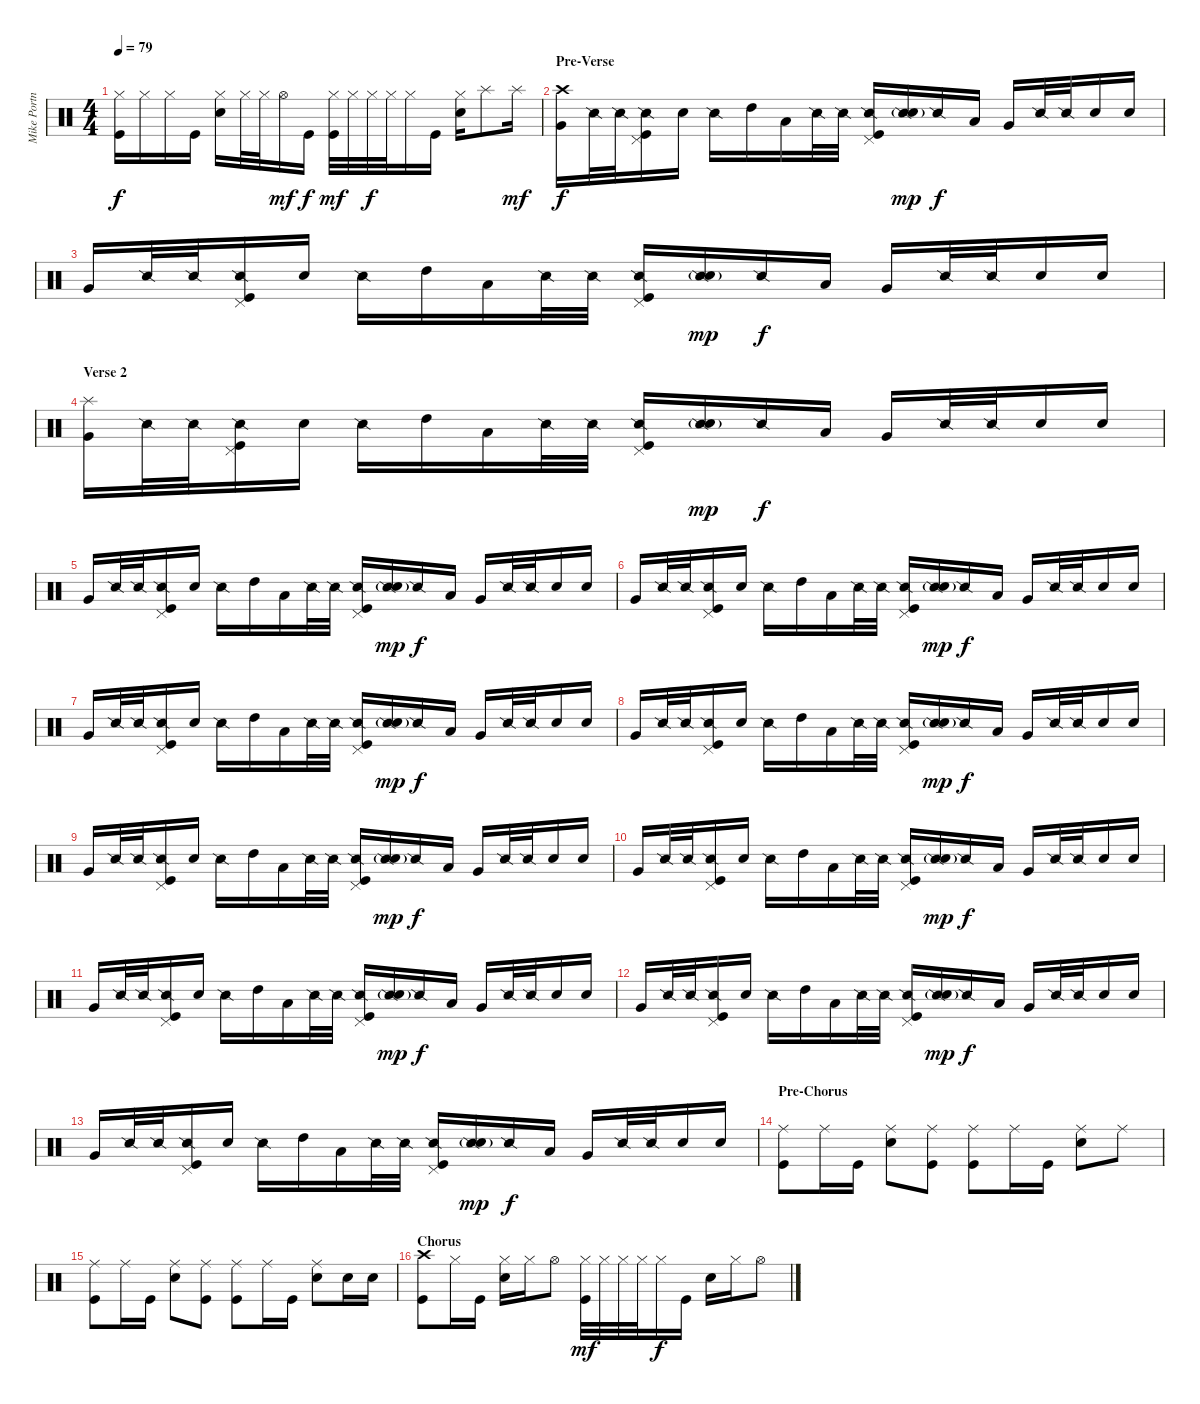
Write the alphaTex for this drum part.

\track ("Mike Portnoy" "Mike Portn") {instrument percussion}
\staff {score}
\articulation defaults
\ts (4 4)
\tempo 79
\clef neutral
\ks c
("Hi-Hat (closed)" "Kick (hit)").16{dy f} "Hi-Hat (closed)".16 "Hi-Hat (closed)".16 "Kick (hit)".16 ("Hi-Hat (closed)" "Electric Snare (hit)").16 "Hi-Hat (closed)".32 "Hi-Hat (closed)".32 "Hi-Hat (open)".16{dy mf} "Kick (hit)".16{dy f} ("Hi-Hat (closed)" "Kick (hit)").32{dy mf} "Hi-Hat (closed)".32 "Hi-Hat (closed)".32{dy f} "Hi-Hat (closed)".32 "Hi-Hat (closed)".16 "Kick (hit)".16 ("Hi-Hat (closed)" "Electric Snare (hit)").16 "Splash (hit)".8 "Splash (hit)".16{dy mf} |
\section ("" "Pre-Verse")
("Crash high (hit)" "Very Low Tom (hit)").16{dy f volume 11} "Snare (side stick) 2".32 "Snare (side stick) 2".32 ("Snare (side stick) 2" "Pedal Hi-Hat (hit)" "Kick (hit)").16 "Electric Snare (hit)".16 "Snare (side stick) 2".16 "High Tom (hit)".16 "Low Tom (hit)".16 "Snare (side stick) 2".32 "Snare (side stick) 2".32 ("Snare (side stick) 2" "Pedal Hi-Hat (hit)" "Kick (hit)").16 ("Snare (side stick) 2" "Electric Snare (hit)"{g}).16{dy mp} "Snare (side stick) 2".16{dy f} "Low Tom (hit)".16 "Very Low Tom (hit)".16 "Snare (side stick) 2".32 "Snare (side stick) 2".32 "Electric Snare (hit)".16 "Electric Snare (hit)".16 |
"Very Low Tom (hit)".16 "Snare (side stick) 2".32 "Snare (side stick) 2".32 ("Snare (side stick) 2" "Pedal Hi-Hat (hit)" "Kick (hit)").16 "Electric Snare (hit)".16 "Snare (side stick) 2".16 "High Tom (hit)".16 "Low Tom (hit)".16 "Snare (side stick) 2".32 "Snare (side stick) 2".32 ("Snare (side stick) 2" "Pedal Hi-Hat (hit)" "Kick (hit)").16 ("Snare (side stick) 2" "Electric Snare (hit)"{g}).16{dy mp} "Snare (side stick) 2".16{dy f} "Low Tom (hit)".16 "Very Low Tom (hit)".16 "Snare (side stick) 2".32 "Snare (side stick) 2".32 "Electric Snare (hit)".16 "Electric Snare (hit)".16 |
\section ("" "Verse 2")
("Splash (hit)" "Very Low Tom (hit)").16 "Snare (side stick) 2".32 "Snare (side stick) 2".32 ("Snare (side stick) 2" "Pedal Hi-Hat (hit)" "Kick (hit)").16 "Electric Snare (hit)".16 "Snare (side stick) 2".16 "High Tom (hit)".16 "Low Tom (hit)".16 "Snare (side stick) 2".32 "Snare (side stick) 2".32 ("Snare (side stick) 2" "Pedal Hi-Hat (hit)" "Kick (hit)").16 ("Snare (side stick) 2" "Electric Snare (hit)"{g}).16{dy mp} "Snare (side stick) 2".16{dy f} "Low Tom (hit)".16 "Very Low Tom (hit)".16 "Snare (side stick) 2".32 "Snare (side stick) 2".32 "Electric Snare (hit)".16 "Electric Snare (hit)".16 |
"Very Low Tom (hit)".16 "Snare (side stick) 2".32 "Snare (side stick) 2".32 ("Snare (side stick) 2" "Pedal Hi-Hat (hit)" "Kick (hit)").16 "Electric Snare (hit)".16 "Snare (side stick) 2".16 "High Tom (hit)".16 "Low Tom (hit)".16 "Snare (side stick) 2".32 "Snare (side stick) 2".32 ("Snare (side stick) 2" "Pedal Hi-Hat (hit)" "Kick (hit)").16 ("Snare (side stick) 2" "Electric Snare (hit)"{g}).16{dy mp} "Snare (side stick) 2".16{dy f} "Low Tom (hit)".16 "Very Low Tom (hit)".16 "Snare (side stick) 2".32 "Snare (side stick) 2".32 "Electric Snare (hit)".16 "Electric Snare (hit)".16 |
"Very Low Tom (hit)".16 "Snare (side stick) 2".32 "Snare (side stick) 2".32 ("Snare (side stick) 2" "Pedal Hi-Hat (hit)" "Kick (hit)").16 "Electric Snare (hit)".16 "Snare (side stick) 2".16 "High Tom (hit)".16 "Low Tom (hit)".16 "Snare (side stick) 2".32 "Snare (side stick) 2".32 ("Snare (side stick) 2" "Pedal Hi-Hat (hit)" "Kick (hit)").16 ("Snare (side stick) 2" "Electric Snare (hit)"{g}).16{dy mp} "Snare (side stick) 2".16{dy f} "Low Tom (hit)".16 "Very Low Tom (hit)".16 "Snare (side stick) 2".32 "Snare (side stick) 2".32 "Electric Snare (hit)".16 "Electric Snare (hit)".16 |
"Very Low Tom (hit)".16 "Snare (side stick) 2".32 "Snare (side stick) 2".32 ("Snare (side stick) 2" "Pedal Hi-Hat (hit)" "Kick (hit)").16 "Electric Snare (hit)".16 "Snare (side stick) 2".16 "High Tom (hit)".16 "Low Tom (hit)".16 "Snare (side stick) 2".32 "Snare (side stick) 2".32 ("Snare (side stick) 2" "Pedal Hi-Hat (hit)" "Kick (hit)").16 ("Snare (side stick) 2" "Electric Snare (hit)"{g}).16{dy mp} "Snare (side stick) 2".16{dy f} "Low Tom (hit)".16 "Very Low Tom (hit)".16 "Snare (side stick) 2".32 "Snare (side stick) 2".32 "Electric Snare (hit)".16 "Electric Snare (hit)".16 |
"Very Low Tom (hit)".16 "Snare (side stick) 2".32 "Snare (side stick) 2".32 ("Snare (side stick) 2" "Pedal Hi-Hat (hit)" "Kick (hit)").16 "Electric Snare (hit)".16 "Snare (side stick) 2".16 "High Tom (hit)".16 "Low Tom (hit)".16 "Snare (side stick) 2".32 "Snare (side stick) 2".32 ("Snare (side stick) 2" "Pedal Hi-Hat (hit)" "Kick (hit)").16 ("Snare (side stick) 2" "Electric Snare (hit)"{g}).16{dy mp} "Snare (side stick) 2".16{dy f} "Low Tom (hit)".16 "Very Low Tom (hit)".16 "Snare (side stick) 2".32 "Snare (side stick) 2".32 "Electric Snare (hit)".16 "Electric Snare (hit)".16 |
"Very Low Tom (hit)".16 "Snare (side stick) 2".32 "Snare (side stick) 2".32 ("Snare (side stick) 2" "Pedal Hi-Hat (hit)" "Kick (hit)").16 "Electric Snare (hit)".16 "Snare (side stick) 2".16 "High Tom (hit)".16 "Low Tom (hit)".16 "Snare (side stick) 2".32 "Snare (side stick) 2".32 ("Snare (side stick) 2" "Pedal Hi-Hat (hit)" "Kick (hit)").16 ("Snare (side stick) 2" "Electric Snare (hit)"{g}).16{dy mp} "Snare (side stick) 2".16{dy f} "Low Tom (hit)".16 "Very Low Tom (hit)".16 "Snare (side stick) 2".32 "Snare (side stick) 2".32 "Electric Snare (hit)".16 "Electric Snare (hit)".16 |
"Very Low Tom (hit)".16 "Snare (side stick) 2".32 "Snare (side stick) 2".32 ("Snare (side stick) 2" "Pedal Hi-Hat (hit)" "Kick (hit)").16 "Electric Snare (hit)".16 "Snare (side stick) 2".16 "High Tom (hit)".16 "Low Tom (hit)".16 "Snare (side stick) 2".32 "Snare (side stick) 2".32 ("Snare (side stick) 2" "Pedal Hi-Hat (hit)" "Kick (hit)").16 ("Snare (side stick) 2" "Electric Snare (hit)"{g}).16{dy mp} "Snare (side stick) 2".16{dy f} "Low Tom (hit)".16 "Very Low Tom (hit)".16 "Snare (side stick) 2".32 "Snare (side stick) 2".32 "Electric Snare (hit)".16 "Electric Snare (hit)".16 |
"Very Low Tom (hit)".16 "Snare (side stick) 2".32 "Snare (side stick) 2".32 ("Snare (side stick) 2" "Pedal Hi-Hat (hit)" "Kick (hit)").16 "Electric Snare (hit)".16 "Snare (side stick) 2".16 "High Tom (hit)".16 "Low Tom (hit)".16 "Snare (side stick) 2".32 "Snare (side stick) 2".32 ("Snare (side stick) 2" "Pedal Hi-Hat (hit)" "Kick (hit)").16 ("Snare (side stick) 2" "Electric Snare (hit)"{g}).16{dy mp} "Snare (side stick) 2".16{dy f} "Low Tom (hit)".16 "Very Low Tom (hit)".16 "Snare (side stick) 2".32 "Snare (side stick) 2".32 "Electric Snare (hit)".16 "Electric Snare (hit)".16 |
"Very Low Tom (hit)".16 "Snare (side stick) 2".32 "Snare (side stick) 2".32 ("Snare (side stick) 2" "Pedal Hi-Hat (hit)" "Kick (hit)").16 "Electric Snare (hit)".16 "Snare (side stick) 2".16 "High Tom (hit)".16 "Low Tom (hit)".16 "Snare (side stick) 2".32 "Snare (side stick) 2".32 ("Snare (side stick) 2" "Pedal Hi-Hat (hit)" "Kick (hit)").16 ("Snare (side stick) 2" "Electric Snare (hit)"{g}).16{dy mp} "Snare (side stick) 2".16{dy f} "Low Tom (hit)".16 "Very Low Tom (hit)".16 "Snare (side stick) 2".32 "Snare (side stick) 2".32 "Electric Snare (hit)".16 "Electric Snare (hit)".16 |
"Very Low Tom (hit)".16 "Snare (side stick) 2".32 "Snare (side stick) 2".32 ("Snare (side stick) 2" "Pedal Hi-Hat (hit)" "Kick (hit)").16 "Electric Snare (hit)".16 "Snare (side stick) 2".16 "High Tom (hit)".16 "Low Tom (hit)".16 "Snare (side stick) 2".32 "Snare (side stick) 2".32 ("Snare (side stick) 2" "Pedal Hi-Hat (hit)" "Kick (hit)").16 ("Snare (side stick) 2" "Electric Snare (hit)"{g}).16{dy mp} "Snare (side stick) 2".16{dy f} "Low Tom (hit)".16 "Very Low Tom (hit)".16 "Snare (side stick) 2".32 "Snare (side stick) 2".32 "Electric Snare (hit)".16 "Electric Snare (hit)".16 |
\section ("" "Pre-Chorus")
("Ride (middle)" "Kick (hit)").8{volume 15} "Ride (middle)".16 "Kick (hit)".16 ("Ride (middle)" "Electric Snare (hit)").8 ("Ride (middle)" "Kick (hit)").8 ("Ride (middle)" "Kick (hit)").8 "Ride (middle)".16 "Kick (hit)".16 ("Ride (middle)" "Electric Snare (hit)").8 "Ride (middle)".8 |
("Ride (middle)" "Kick (hit)").8 "Ride (middle)".16 "Kick (hit)".16 ("Ride (middle)" "Electric Snare (hit)").8 ("Ride (middle)" "Kick (hit)").8 ("Ride (middle)" "Kick (hit)").8 "Ride (middle)".16 "Kick (hit)".16 ("Ride (middle)" "Electric Snare (hit)").8 "Electric Snare (hit)".16 "Electric Snare (hit)".16 |
\section ("" "Chorus")
("Crash high (hit)" "Kick (hit)").8{volume 15} "Hi-Hat (closed)".16 "Kick (hit)".16 ("Hi-Hat (closed)" "Electric Snare (hit)").16 "Hi-Hat (closed)".16 "Hi-Hat (open)".8 ("Hi-Hat (closed)" "Kick (hit)").32{dy mf} "Hi-Hat (closed)".32 "Hi-Hat (closed)".32 "Hi-Hat (closed)".32 "Hi-Hat (closed)".16{dy f} "Kick (hit)".16 "Electric Snare (hit)".16 "Hi-Hat (closed)".16 "Hi-Hat (open)".8
